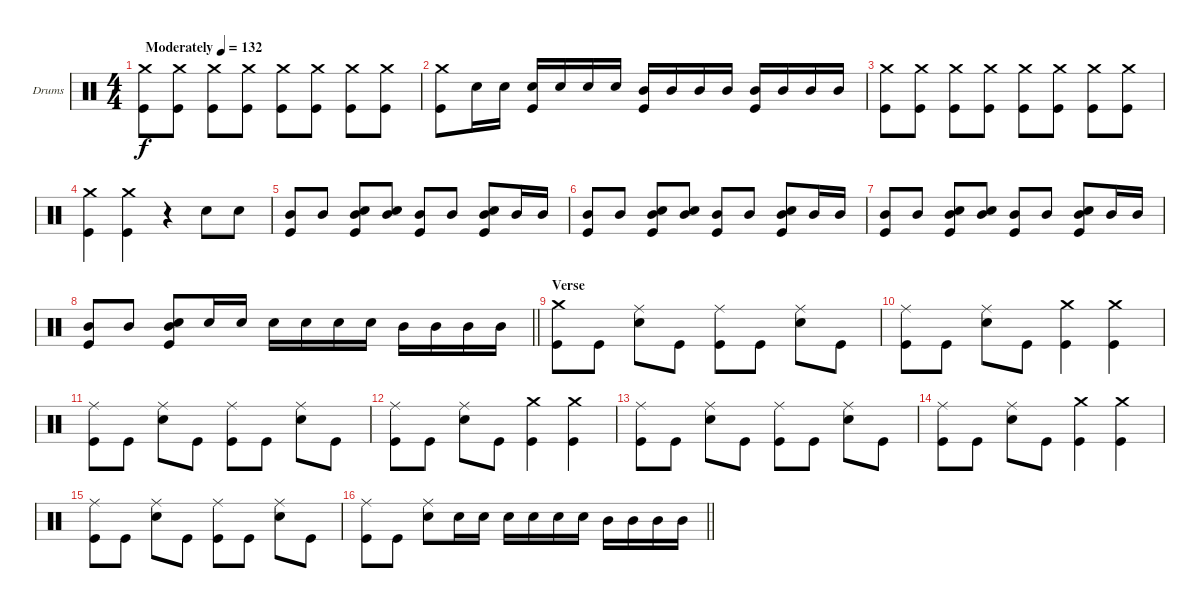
\bracketExtendMode groupsimilarinstruments
\firstSystemTrackNameOrientation horizontal
\otherSystemsTrackNameOrientation horizontal
\track ("Drums" "Drums") {instrument percussion}
\staff {score}
\articulation defaults
\ts (4 4)
\beaming (8 2 2 2 2)
\tempo (132 "Moderately")
\clef neutral
\ks c
("Crash medium (hit)" "Kick (hit)").8{dy f} ("Crash medium (hit)" "Kick (hit)").8 ("Crash medium (hit)" "Kick (hit)").8 ("Crash medium (hit)" "Kick (hit)").8 ("Crash medium (hit)" "Kick (hit)").8 ("Crash medium (hit)" "Kick (hit)").8 ("Crash medium (hit)" "Kick (hit)").8 ("Crash medium (hit)" "Kick (hit)").8 |
("Crash medium (hit)" "Kick (hit)").8 "Snare (hit) 2".16 "Snare (hit) 2".16 ("Snare (hit) 2" "Kick (hit)").16 "Snare (hit) 2".16 "Snare (hit) 2".16 "Snare (hit) 2".16 ("Mid Tom (hit)" "Kick (hit)").16 "Mid Tom (hit)".16 "Mid Tom (hit)".16 "Mid Tom (hit)".16 ("Mid Tom (hit)" "Kick (hit)").16 "Mid Tom (hit)".16 "Mid Tom (hit)".16 "Mid Tom (hit)".16 |
("Crash medium (hit)" "Kick (hit)").8 ("Crash medium (hit)" "Kick (hit)").8 ("Crash medium (hit)" "Kick (hit)").8 ("Crash medium (hit)" "Kick (hit)").8 ("Crash medium (hit)" "Kick (hit)").8 ("Crash medium (hit)" "Kick (hit)").8 ("Crash medium (hit)" "Kick (hit)").8 ("Crash medium (hit)" "Kick (hit)").8 |
("Crash medium (hit)" "Kick (hit)").4 ("Crash medium (hit)" "Kick (hit)").4 r.4 "Snare (hit) 2".8 "Snare (hit) 2".8 |
("Mid Tom (hit)" "Kick (hit)").8 "Mid Tom (hit)".8 ("Mid Tom (hit)" "Snare (hit) 2" "Kick (hit)").8 ("Mid Tom (hit)" "Snare (hit) 2").8 ("Mid Tom (hit)" "Kick (hit)").8 "Mid Tom (hit)".8 ("Mid Tom (hit)" "Snare (hit) 2" "Kick (hit)").8 "Mid Tom (hit)".16 "Mid Tom (hit)".16 |
("Mid Tom (hit)" "Kick (hit)").8 "Mid Tom (hit)".8 ("Mid Tom (hit)" "Snare (hit) 2" "Kick (hit)").8 ("Mid Tom (hit)" "Snare (hit) 2").8 ("Mid Tom (hit)" "Kick (hit)").8 "Mid Tom (hit)".8 ("Mid Tom (hit)" "Snare (hit) 2" "Kick (hit)").8 "Mid Tom (hit)".16 "Mid Tom (hit)".16 |
("Mid Tom (hit)" "Kick (hit)").8 "Mid Tom (hit)".8 ("Mid Tom (hit)" "Snare (hit) 2" "Kick (hit)").8 ("Mid Tom (hit)" "Snare (hit) 2").8 ("Mid Tom (hit)" "Kick (hit)").8 "Mid Tom (hit)".8 ("Mid Tom (hit)" "Snare (hit) 2" "Kick (hit)").8 "Mid Tom (hit)".16 "Mid Tom (hit)".16 |
\barLineRight lightlight
("Mid Tom (hit)" "Kick (hit)").8 "Mid Tom (hit)".8 ("Mid Tom (hit)" "Snare (hit) 2" "Kick (hit)").8 "Snare (hit) 2".16 "Snare (hit) 2".16 "Snare (hit) 2".16 "Snare (hit) 2".16 "Snare (hit) 2".16 "Snare (hit) 2".16 "Mid Tom (hit)".16 "Mid Tom (hit)".16 "Mid Tom (hit)".16 "Mid Tom (hit)".16 |
\section ("" "Verse")
("Crash medium (hit)" "Kick (hit)").8 "Kick (hit)".8 ("Ride (middle)" "Snare (hit) 2").8 "Kick (hit)".8 ("Ride (middle)" "Kick (hit)").8 "Kick (hit)".8 ("Ride (middle)" "Snare (hit) 2").8 "Kick (hit)".8 |
("Ride (middle)" "Kick (hit)").8 "Kick (hit)".8 ("Ride (middle)" "Snare (hit) 2").8 "Kick (hit)".8 ("Crash medium (hit)" "Kick (hit)").4 ("Crash medium (hit)" "Kick (hit)").4 |
("Ride (middle)" "Kick (hit)").8 "Kick (hit)".8 ("Ride (middle)" "Snare (hit) 2").8 "Kick (hit)".8 ("Ride (middle)" "Kick (hit)").8 "Kick (hit)".8 ("Ride (middle)" "Snare (hit) 2").8 "Kick (hit)".8 |
("Ride (middle)" "Kick (hit)").8 "Kick (hit)".8 ("Ride (middle)" "Snare (hit) 2").8 "Kick (hit)".8 ("Crash medium (hit)" "Kick (hit)").4 ("Crash medium (hit)" "Kick (hit)").4 |
("Ride (middle)" "Kick (hit)").8 "Kick (hit)".8 ("Ride (middle)" "Snare (hit) 2").8 "Kick (hit)".8 ("Ride (middle)" "Kick (hit)").8 "Kick (hit)".8 ("Ride (middle)" "Snare (hit) 2").8 "Kick (hit)".8 |
("Ride (middle)" "Kick (hit)").8 "Kick (hit)".8 ("Ride (middle)" "Snare (hit) 2").8 "Kick (hit)".8 ("Crash medium (hit)" "Kick (hit)").4 ("Crash medium (hit)" "Kick (hit)").4 |
("Ride (middle)" "Kick (hit)").8 "Kick (hit)".8 ("Ride (middle)" "Snare (hit) 2").8 "Kick (hit)".8 ("Ride (middle)" "Kick (hit)").8 "Kick (hit)".8 ("Ride (middle)" "Snare (hit) 2").8 "Kick (hit)".8 |
\barLineRight lightlight
("Ride (middle)" "Kick (hit)").8 "Kick (hit)".8 ("Ride (middle)" "Snare (hit) 2").8 "Snare (hit) 2".16 "Snare (hit) 2".16 "Snare (hit) 2".16 "Snare (hit) 2".16 "Snare (hit) 2".16 "Snare (hit) 2".16 "Mid Tom (hit)".16 "Mid Tom (hit)".16 "Mid Tom (hit)".16 "Mid Tom (hit)".16
